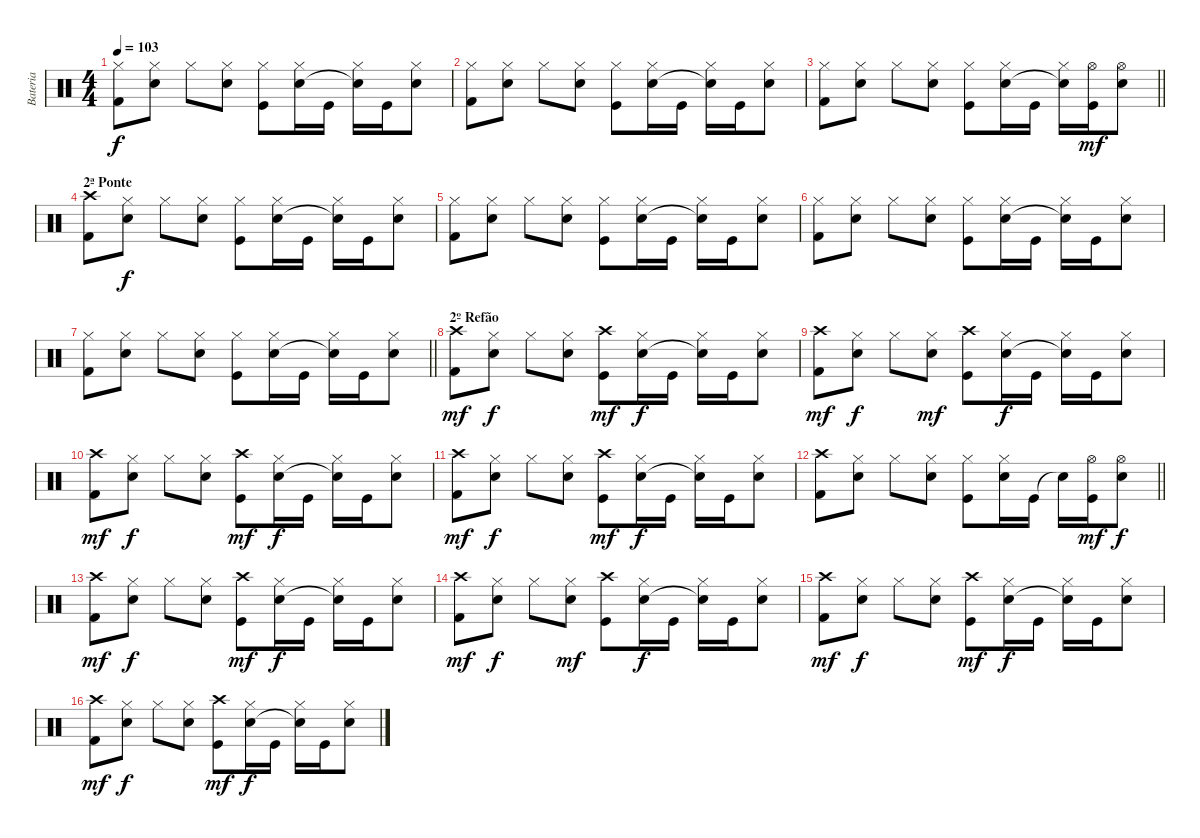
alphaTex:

\track ("Bateria" "Bateria") {instrument percussion}
\staff {score}
\articulation defaults
\ts (4 4)
\tempo 103
\clef neutral
\ks c
("Hi-Hat (closed)" "Kick (hit) 2").8{dy f} ("Hi-Hat (closed)" "Snare (hit) 2").8 "Hi-Hat (closed)".8 ("Hi-Hat (closed)" "Snare (hit) 2").8 ("Hi-Hat (closed)" "Kick (hit)").8 ("Hi-Hat (closed)" "Snare (hit) 2").16 "Kick (hit)".16 ("Hi-Hat (closed)" "Snare (hit)"{t}).16 "Kick (hit)".16 ("Hi-Hat (closed)" "Snare (hit) 2").8 |
("Hi-Hat (closed)" "Kick (hit) 2").8 ("Hi-Hat (closed)" "Snare (hit) 2").8 "Hi-Hat (closed)".8 ("Hi-Hat (closed)" "Snare (hit) 2").8 ("Hi-Hat (closed)" "Kick (hit)").8 ("Hi-Hat (closed)" "Snare (hit) 2").16 "Kick (hit)".16 ("Hi-Hat (closed)" "Snare (hit)"{t}).16 "Kick (hit)".16 ("Hi-Hat (closed)" "Snare (hit) 2").8 |
\barLineRight lightlight
("Hi-Hat (closed)" "Kick (hit) 2").8 ("Hi-Hat (closed)" "Snare (hit) 2").8 "Hi-Hat (closed)".8 ("Hi-Hat (closed)" "Snare (hit) 2").8 ("Hi-Hat (closed)" "Kick (hit)").8 ("Hi-Hat (closed)" "Snare (hit) 2").16 "Kick (hit)".16 ("Hi-Hat (closed)" "Snare (hit)"{t}).16 ("Hi-Hat (open)" "Kick (hit)").16{dy mf} ("Hi-Hat (open)" "Snare (hit) 2").8 |
\section ("" "2ª Ponte")
("Crash high (hit)" "Kick (hit) 2").8 ("Hi-Hat (closed)" "Snare (hit) 2").8{dy f} "Hi-Hat (closed)".8 ("Hi-Hat (closed)" "Snare (hit) 2").8 ("Hi-Hat (closed)" "Kick (hit)").8 ("Hi-Hat (closed)" "Snare (hit) 2").16 "Kick (hit)".16 ("Hi-Hat (closed)" "Snare (hit)"{t}).16 "Kick (hit)".16 ("Hi-Hat (closed)" "Snare (hit) 2").8 |
("Hi-Hat (closed)" "Kick (hit) 2").8 ("Hi-Hat (closed)" "Snare (hit) 2").8 "Hi-Hat (closed)".8 ("Hi-Hat (closed)" "Snare (hit) 2").8 ("Hi-Hat (closed)" "Kick (hit)").8 ("Hi-Hat (closed)" "Snare (hit) 2").16 "Kick (hit)".16 ("Hi-Hat (closed)" "Snare (hit)"{t}).16 "Kick (hit)".16 ("Hi-Hat (closed)" "Snare (hit) 2").8 |
("Hi-Hat (closed)" "Kick (hit) 2").8 ("Hi-Hat (closed)" "Snare (hit) 2").8 "Hi-Hat (closed)".8 ("Hi-Hat (closed)" "Snare (hit) 2").8 ("Hi-Hat (closed)" "Kick (hit)").8 ("Hi-Hat (closed)" "Snare (hit) 2").16 "Kick (hit)".16 ("Hi-Hat (closed)" "Snare (hit)"{t}).16 "Kick (hit)".16 ("Hi-Hat (closed)" "Snare (hit) 2").8 |
\barLineRight lightlight
("Hi-Hat (closed)" "Kick (hit) 2").8 ("Hi-Hat (closed)" "Snare (hit) 2").8 "Hi-Hat (closed)".8 ("Hi-Hat (closed)" "Snare (hit) 2").8 ("Hi-Hat (closed)" "Kick (hit)").8 ("Hi-Hat (closed)" "Snare (hit) 2").16 "Kick (hit)".16 ("Hi-Hat (closed)" "Snare (hit)"{t}).16 "Kick (hit)".16 ("Hi-Hat (closed)" "Snare (hit) 2").8 |
\section ("" "2º Refão")
("Crash high (hit)" "Kick (hit) 2").8{dy mf} ("Hi-Hat (closed)" "Snare (hit) 2").8{dy f} "Hi-Hat (closed)".8 ("Hi-Hat (closed)" "Snare (hit) 2").8 ("Crash high (hit)" "Kick (hit)").8{dy mf} ("Hi-Hat (closed)" "Snare (hit) 2").16{dy f} "Kick (hit)".16 ("Hi-Hat (closed)" "Snare (hit)"{t}).16 "Kick (hit)".16 ("Hi-Hat (closed)" "Snare (hit) 2").8 |
("Crash high (hit)" "Kick (hit) 2").8{dy mf} ("Hi-Hat (closed)" "Snare (hit) 2").8{dy f} "Hi-Hat (closed)".8 ("Hi-Hat (closed)" "Snare (hit) 2").8{dy mf} ("Crash high (hit)" "Kick (hit)").8 ("Hi-Hat (closed)" "Snare (hit) 2").16{dy f} "Kick (hit)".16 ("Hi-Hat (closed)" "Snare (hit)"{t}).16 "Kick (hit)".16 ("Hi-Hat (closed)" "Snare (hit) 2").8 |
("Crash high (hit)" "Kick (hit) 2").8{dy mf} ("Hi-Hat (closed)" "Snare (hit) 2").8{dy f} "Hi-Hat (closed)".8 ("Hi-Hat (closed)" "Snare (hit) 2").8 ("Crash high (hit)" "Kick (hit)").8{dy mf} ("Hi-Hat (closed)" "Snare (hit) 2").16{dy f} "Kick (hit)".16 ("Hi-Hat (closed)" "Snare (hit)"{t}).16 "Kick (hit)".16 ("Hi-Hat (closed)" "Snare (hit) 2").8 |
("Crash high (hit)" "Kick (hit) 2").8{dy mf} ("Hi-Hat (closed)" "Snare (hit) 2").8{dy f} "Hi-Hat (closed)".8 ("Hi-Hat (closed)" "Snare (hit) 2").8 ("Crash high (hit)" "Kick (hit)").8{dy mf} ("Hi-Hat (closed)" "Snare (hit) 2").16{dy f} "Kick (hit)".16 ("Hi-Hat (closed)" "Snare (hit)"{t}).16 "Kick (hit)".16 ("Hi-Hat (closed)" "Snare (hit) 2").8 |
\barLineRight lightlight
("Crash high (hit)" "Kick (hit) 2").8 ("Hi-Hat (closed)" "Snare (hit) 2").8 "Hi-Hat (closed)".8 ("Hi-Hat (closed)" "Snare (hit) 2").8 ("Hi-Hat (closed)" "Kick (hit)").8 ("Hi-Hat (closed)" "Snare (hit) 2").16 "Kick (hit)".16 "Snare (hit)"{t}.16 ("Hi-Hat (open)" "Kick (hit)").16{dy mf} ("Hi-Hat (open)" "Snare (hit) 2").8{dy f} |
("Crash high (hit)" "Kick (hit) 2").8{dy mf} ("Hi-Hat (closed)" "Snare (hit) 2").8{dy f} "Hi-Hat (closed)".8 ("Hi-Hat (closed)" "Snare (hit) 2").8 ("Crash high (hit)" "Kick (hit)").8{dy mf} ("Hi-Hat (closed)" "Snare (hit) 2").16{dy f} "Kick (hit)".16 ("Hi-Hat (closed)" "Snare (hit)"{t}).16 "Kick (hit)".16 ("Hi-Hat (closed)" "Snare (hit) 2").8 |
("Crash high (hit)" "Kick (hit) 2").8{dy mf} ("Hi-Hat (closed)" "Snare (hit) 2").8{dy f} "Hi-Hat (closed)".8 ("Hi-Hat (closed)" "Snare (hit) 2").8{dy mf} ("Crash high (hit)" "Kick (hit)").8 ("Hi-Hat (closed)" "Snare (hit) 2").16{dy f} "Kick (hit)".16 ("Hi-Hat (closed)" "Snare (hit)"{t}).16 "Kick (hit)".16 ("Hi-Hat (closed)" "Snare (hit) 2").8 |
("Crash high (hit)" "Kick (hit) 2").8{dy mf} ("Hi-Hat (closed)" "Snare (hit) 2").8{dy f} "Hi-Hat (closed)".8 ("Hi-Hat (closed)" "Snare (hit) 2").8 ("Crash high (hit)" "Kick (hit)").8{dy mf} ("Hi-Hat (closed)" "Snare (hit) 2").16{dy f} "Kick (hit)".16 ("Hi-Hat (closed)" "Snare (hit)"{t}).16 "Kick (hit)".16 ("Hi-Hat (closed)" "Snare (hit) 2").8 |
("Crash high (hit)" "Kick (hit) 2").8{dy mf} ("Hi-Hat (closed)" "Snare (hit) 2").8{dy f} "Hi-Hat (closed)".8 ("Hi-Hat (closed)" "Snare (hit) 2").8 ("Crash high (hit)" "Kick (hit)").8{dy mf} ("Hi-Hat (closed)" "Snare (hit) 2").16{dy f} "Kick (hit)".16 ("Hi-Hat (closed)" "Snare (hit)"{t}).16 "Kick (hit)".16 ("Hi-Hat (closed)" "Snare (hit) 2").8
